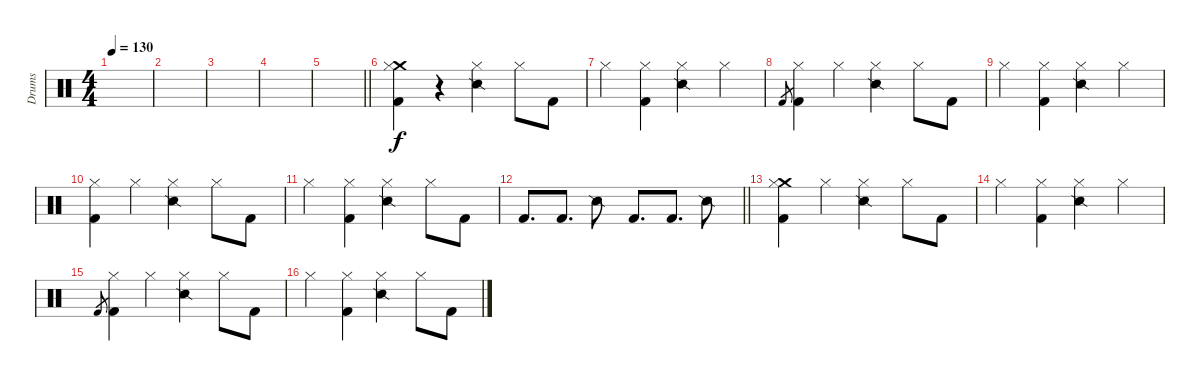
\track ("Drums" "Drums") {instrument percussion}
\staff {score}
\articulation defaults
\ts (4 4)
\tempo 130
\clef neutral
\ks c
|
|
|
|
\barLineRight lightlight
|
("Crash medium (hit)" "Hi-Hat (closed)" "Kick (hit) 2").4 r.4 ("Hi-Hat (closed)" "Snare (side stick) 2").4 "Hi-Hat (closed)".8 "Kick (hit) 2".8 |
"Hi-Hat (closed)".4 ("Kick (hit) 2" "Hi-Hat (closed)").4 ("Hi-Hat (closed)" "Snare (side stick) 2").4 "Hi-Hat (closed)".4 |
"Kick (hit) 2".8{gr} ("Hi-Hat (closed)" "Kick (hit) 2").4 "Hi-Hat (closed)".4 ("Hi-Hat (closed)" "Snare (side stick) 2").4 "Hi-Hat (closed)".8 "Kick (hit) 2".8 |
"Hi-Hat (closed)".4 ("Kick (hit) 2" "Hi-Hat (closed)").4 ("Hi-Hat (closed)" "Snare (side stick) 2").4 "Hi-Hat (closed)".4 |
("Hi-Hat (closed)" "Kick (hit) 2").4 "Hi-Hat (closed)".4 ("Hi-Hat (closed)" "Snare (side stick) 2").4 "Hi-Hat (closed)".8 "Kick (hit) 2".8 |
"Hi-Hat (closed)".4 ("Kick (hit) 2" "Hi-Hat (closed)").4 ("Hi-Hat (closed)" "Snare (side stick) 2").4 "Hi-Hat (closed)".8 "Kick (hit) 2".8 |
\barLineRight lightlight "Kick (hit) 2".8{d} "Kick (hit) 2".8{d} "Snare (side stick) 2".8 "Kick (hit) 2".8{d} "Kick (hit) 2".8{d} "Snare (side stick) 2".8
|
("Crash medium (hit)" "Hi-Hat (closed)" "Kick (hit) 2").4 "Hi-Hat (closed)".4 ("Hi-Hat (closed)" "Snare (side stick) 2").4 "Hi-Hat (closed)".8 "Kick (hit) 2".8 |
"Hi-Hat (closed)".4 ("Kick (hit) 2" "Hi-Hat (closed)").4 ("Hi-Hat (closed)" "Snare (side stick) 2").4 "Hi-Hat (closed)".4 |
"Kick (hit) 2".8{gr} ("Hi-Hat (closed)" "Kick (hit) 2").4 "Hi-Hat (closed)".4 ("Hi-Hat (closed)" "Snare (side stick) 2").4 "Hi-Hat (closed)".8 "Kick (hit) 2".8 |
"Hi-Hat (closed)".4 ("Kick (hit) 2" "Hi-Hat (closed)").4 ("Hi-Hat (closed)" "Snare (side stick) 2").4 "Hi-Hat (closed)".8 "Kick (hit) 2".8
